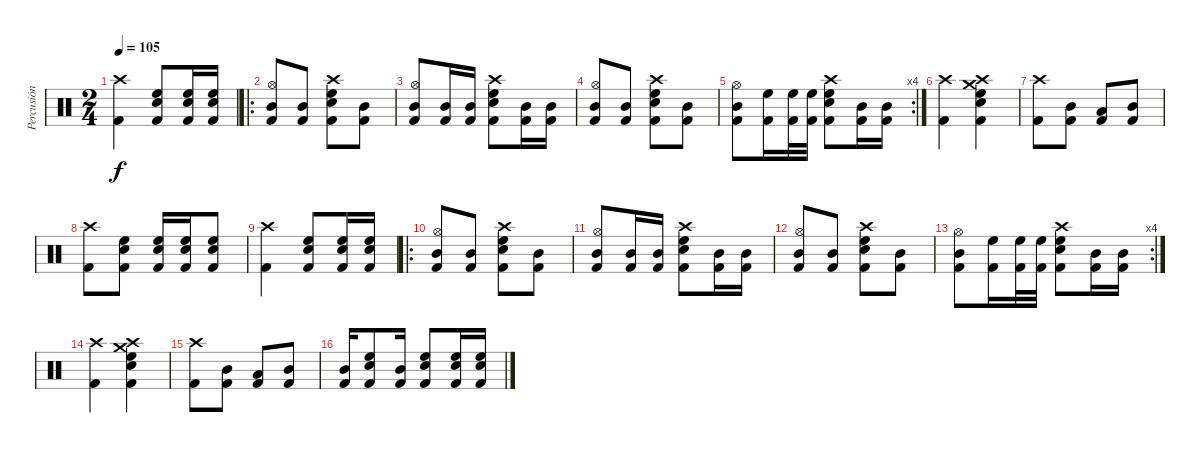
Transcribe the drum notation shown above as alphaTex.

\track ("Percusión" "Percusión") {instrument percussion}
\staff {score}
\articulation defaults
\ts (2 4)
\tempo 105
\clef neutral
\ks c
("Crash high (hit)" "Kick (hit) 2").4{dy f} ("High Floor Tom (hit)" "Snare (hit) 2" "Kick (hit) 2").8 ("High Floor Tom (hit)" "Snare (hit) 2" "Kick (hit) 2").16 ("High Floor Tom (hit)" "Snare (hit) 2" "Kick (hit) 2").16 |
\ro
("Hi-Hat (open)" "Mid Tom (hit)" "Kick (hit) 2").8 ("Mid Tom (hit)" "Kick (hit) 2").8 ("Crash high (hit)" "High Floor Tom (hit)" "Snare (hit) 2" "Kick (hit) 2").8 ("Mid Tom (hit)" "Kick (hit) 2").8 |
("Hi-Hat (open)" "Mid Tom (hit)" "Kick (hit) 2").8 ("Mid Tom (hit)" "Kick (hit) 2").16 ("Mid Tom (hit)" "Kick (hit) 2").16 ("Crash high (hit)" "High Floor Tom (hit)" "Snare (hit) 2" "Kick (hit) 2").8 ("Mid Tom (hit)" "Kick (hit) 2").16 ("Mid Tom (hit)" "Kick (hit) 2").16 |
("Hi-Hat (open)" "Mid Tom (hit)" "Kick (hit) 2").8 ("Mid Tom (hit)" "Kick (hit) 2").8 ("Crash high (hit)" "High Floor Tom (hit)" "Snare (hit) 2" "Kick (hit) 2").8 ("Mid Tom (hit)" "Kick (hit) 2").8 |
\rc 4
("Hi-Hat (open)" "Mid Tom (hit)" "Kick (hit) 2").8 ("High Floor Tom (hit)" "Kick (hit) 2").16 ("High Floor Tom (hit)" "Kick (hit) 2").32 ("High Floor Tom (hit)" "Kick (hit) 2").32 ("Crash high (hit)" "High Floor Tom (hit)" "Snare (hit) 2" "Kick (hit) 2").8 ("Mid Tom (hit)" "Kick (hit) 2").16 ("Mid Tom (hit)" "Kick (hit) 2").16 |
("Crash high (hit)" "Kick (hit) 2").4 ("Crash high (hit)" "Crash medium (hit)" "High Floor Tom (hit)" "Snare (hit) 2" "Kick (hit) 2").4 |
("Crash high (hit)" "Kick (hit) 2").8 ("Mid Tom (hit)" "Kick (hit) 2").8 ("Low Tom (hit)" "Kick (hit) 2").8 ("Mid Tom (hit)" "Kick (hit) 2").8 |
("Crash high (hit)" "Kick (hit) 2").8 ("High Floor Tom (hit)" "Snare (hit) 2" "Kick (hit) 2").8 ("High Floor Tom (hit)" "Snare (hit) 2" "Kick (hit) 2").16 ("High Floor Tom (hit)" "Snare (hit) 2" "Kick (hit) 2").16 ("High Floor Tom (hit)" "Snare (hit) 2" "Kick (hit) 2").8 |
("Crash high (hit)" "Kick (hit) 2").4 ("High Floor Tom (hit)" "Snare (hit) 2" "Kick (hit) 2").8 ("High Floor Tom (hit)" "Snare (hit) 2" "Kick (hit) 2").16 ("High Floor Tom (hit)" "Snare (hit) 2" "Kick (hit) 2").16 |
\ro
("Hi-Hat (open)" "Mid Tom (hit)" "Kick (hit) 2").8 ("Mid Tom (hit)" "Kick (hit) 2").8 ("Crash high (hit)" "High Floor Tom (hit)" "Snare (hit) 2" "Kick (hit) 2").8 ("Mid Tom (hit)" "Kick (hit) 2").8 |
("Hi-Hat (open)" "Mid Tom (hit)" "Kick (hit) 2").8 ("Mid Tom (hit)" "Kick (hit) 2").16 ("Mid Tom (hit)" "Kick (hit) 2").16 ("Crash high (hit)" "High Floor Tom (hit)" "Snare (hit) 2" "Kick (hit) 2").8 ("Mid Tom (hit)" "Kick (hit) 2").16 ("Mid Tom (hit)" "Kick (hit) 2").16 |
("Hi-Hat (open)" "Mid Tom (hit)" "Kick (hit) 2").8 ("Mid Tom (hit)" "Kick (hit) 2").8 ("Crash high (hit)" "High Floor Tom (hit)" "Snare (hit) 2" "Kick (hit) 2").8 ("Mid Tom (hit)" "Kick (hit) 2").8 |
\rc 4
("Hi-Hat (open)" "Mid Tom (hit)" "Kick (hit) 2").8 ("High Floor Tom (hit)" "Kick (hit) 2").16 ("High Floor Tom (hit)" "Kick (hit) 2").32 ("High Floor Tom (hit)" "Kick (hit) 2").32 ("Crash high (hit)" "High Floor Tom (hit)" "Snare (hit) 2" "Kick (hit) 2").8 ("Mid Tom (hit)" "Kick (hit) 2").16 ("Mid Tom (hit)" "Kick (hit) 2").16 |
("Crash high (hit)" "Kick (hit) 2").4 ("Crash high (hit)" "Crash medium (hit)" "High Floor Tom (hit)" "Snare (hit) 2" "Kick (hit) 2").4 |
("Crash high (hit)" "Kick (hit) 2").8 ("Mid Tom (hit)" "Kick (hit) 2").8 ("Low Tom (hit)" "Kick (hit) 2").8 ("Mid Tom (hit)" "Kick (hit) 2").8 |
("Mid Tom (hit)" "Kick (hit) 2").16 ("High Floor Tom (hit)" "Snare (hit) 2" "Kick (hit) 2").8 ("Mid Tom (hit)" "Kick (hit) 2").16 ("High Floor Tom (hit)" "Snare (hit) 2" "Kick (hit) 2").8 ("High Floor Tom (hit)" "Snare (hit) 2" "Kick (hit) 2").16 ("High Floor Tom (hit)" "Snare (hit) 2" "Kick (hit) 2").16
